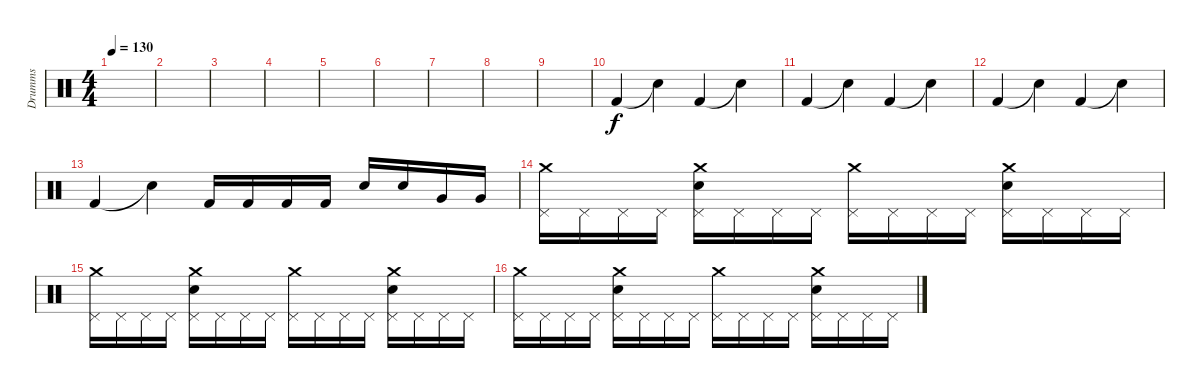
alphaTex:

\track ("Drumms" "Drumms") {instrument percussion}
\staff {score}
\articulation defaults
\ts (4 4)
\tempo 130
\clef neutral
\ks c
|
|
|
|
|
|
|
|
|
"Kick (hit) 2".4 "Snare (hit)"{t}.4 "Kick (hit) 2".4 "Snare (hit)"{t}.4 |
"Kick (hit) 2".4 "Snare (hit)"{t}.4 "Kick (hit) 2".4 "Snare (hit)"{t}.4 |
"Kick (hit) 2".4 "Snare (hit)"{t}.4 "Kick (hit) 2".4 "Snare (hit)"{t}.4 |
"Kick (hit) 2".4 "Snare (hit)"{t}.4 "Kick (hit) 2".16 "Kick (hit) 2".16 "Kick (hit) 2".16 "Kick (hit) 2".16 "Snare (hit) 2".16 "Snare (hit) 2".16 "Very Low Tom (hit)".16 "Very Low Tom (hit)".16 |
("Crash medium (hit)" "Pedal Hi-Hat (hit)").16 "Pedal Hi-Hat (hit)".16 "Pedal Hi-Hat (hit)".16 "Pedal Hi-Hat (hit)".16 ("Crash medium (hit)" "Electric Snare (hit)" "Pedal Hi-Hat (hit)").16 "Pedal Hi-Hat (hit)".16 "Pedal Hi-Hat (hit)".16 "Pedal Hi-Hat (hit)".16 ("Crash medium (hit)" "Pedal Hi-Hat (hit)").16 "Pedal Hi-Hat (hit)".16 "Pedal Hi-Hat (hit)".16 "Pedal Hi-Hat (hit)".16 ("Crash medium (hit)" "Electric Snare (hit)" "Pedal Hi-Hat (hit)").16 "Pedal Hi-Hat (hit)".16 "Pedal Hi-Hat (hit)".16 "Pedal Hi-Hat (hit)".16 |
("Crash medium (hit)" "Pedal Hi-Hat (hit)").16 "Pedal Hi-Hat (hit)".16 "Pedal Hi-Hat (hit)".16 "Pedal Hi-Hat (hit)".16 ("Crash medium (hit)" "Electric Snare (hit)" "Pedal Hi-Hat (hit)").16 "Pedal Hi-Hat (hit)".16 "Pedal Hi-Hat (hit)".16 "Pedal Hi-Hat (hit)".16 ("Crash medium (hit)" "Pedal Hi-Hat (hit)").16 "Pedal Hi-Hat (hit)".16 "Pedal Hi-Hat (hit)".16 "Pedal Hi-Hat (hit)".16 ("Crash medium (hit)" "Electric Snare (hit)" "Pedal Hi-Hat (hit)").16 "Pedal Hi-Hat (hit)".16 "Pedal Hi-Hat (hit)".16 "Pedal Hi-Hat (hit)".16 |
("Crash medium (hit)" "Pedal Hi-Hat (hit)").16 "Pedal Hi-Hat (hit)".16 "Pedal Hi-Hat (hit)".16 "Pedal Hi-Hat (hit)".16 ("Crash medium (hit)" "Electric Snare (hit)" "Pedal Hi-Hat (hit)").16 "Pedal Hi-Hat (hit)".16 "Pedal Hi-Hat (hit)".16 "Pedal Hi-Hat (hit)".16 ("Crash medium (hit)" "Pedal Hi-Hat (hit)").16 "Pedal Hi-Hat (hit)".16 "Pedal Hi-Hat (hit)".16 "Pedal Hi-Hat (hit)".16 ("Crash medium (hit)" "Electric Snare (hit)" "Pedal Hi-Hat (hit)").16 "Pedal Hi-Hat (hit)".16 "Pedal Hi-Hat (hit)".16 "Pedal Hi-Hat (hit)".16
